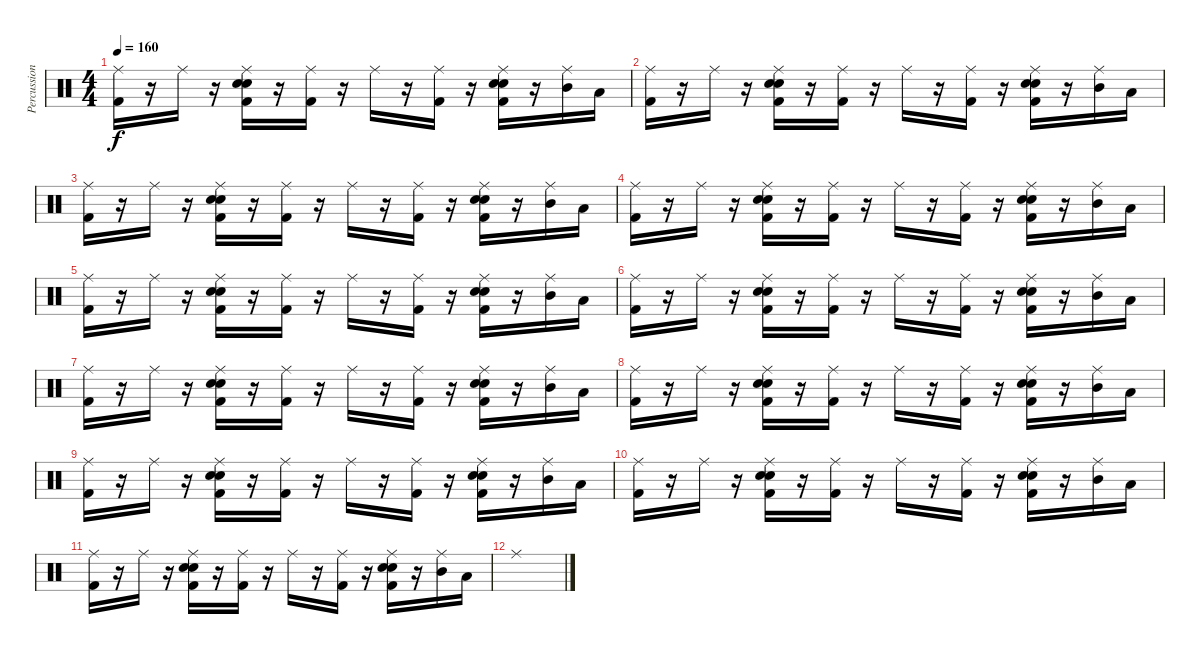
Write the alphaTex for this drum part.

\track ("Percussion" "Percussion") {instrument percussion}
\staff {score}
\articulation defaults
\ts (4 4)
\tempo 160
\clef neutral
\ks c
("Ride (middle)" "Kick (hit) 2").16{dy f} r.16 "Ride (middle)".16 r.16 ("Ride (middle)" "Kick (hit) 2" "Snare (hit) 2" "Electric Snare (hit)").16 r.16 ("Ride (middle)" "Kick (hit) 2").16 r.16 "Ride (middle)".16 r.16 ("Ride (middle)" "Kick (hit) 2").16 r.16 ("Ride (middle)" "Kick (hit) 2" "Snare (hit) 2" "Electric Snare (hit)").16 r.16 ("Ride (middle)" "Mid Tom (hit)").16 "Low Tom (hit)".16 |
("Ride (middle)" "Kick (hit) 2").16 r.16 "Ride (middle)".16 r.16 ("Ride (middle)" "Kick (hit) 2" "Snare (hit) 2" "Electric Snare (hit)").16 r.16 ("Ride (middle)" "Kick (hit) 2").16 r.16 "Ride (middle)".16 r.16 ("Ride (middle)" "Kick (hit) 2").16 r.16 ("Ride (middle)" "Kick (hit) 2" "Snare (hit) 2" "Electric Snare (hit)").16 r.16 ("Ride (middle)" "Mid Tom (hit)").16 "Low Tom (hit)".16 |
("Ride (middle)" "Kick (hit) 2").16 r.16 "Ride (middle)".16 r.16 ("Ride (middle)" "Kick (hit) 2" "Snare (hit) 2" "Electric Snare (hit)").16 r.16 ("Ride (middle)" "Kick (hit) 2").16 r.16 "Ride (middle)".16 r.16 ("Ride (middle)" "Kick (hit) 2").16 r.16 ("Ride (middle)" "Kick (hit) 2" "Snare (hit) 2" "Electric Snare (hit)").16 r.16 ("Ride (middle)" "Mid Tom (hit)").16 "Low Tom (hit)".16 |
("Ride (middle)" "Kick (hit) 2").16 r.16 "Ride (middle)".16 r.16 ("Ride (middle)" "Kick (hit) 2" "Snare (hit) 2" "Electric Snare (hit)").16 r.16 ("Ride (middle)" "Kick (hit) 2").16 r.16 "Ride (middle)".16 r.16 ("Ride (middle)" "Kick (hit) 2").16 r.16 ("Ride (middle)" "Kick (hit) 2" "Snare (hit) 2" "Electric Snare (hit)").16 r.16 ("Ride (middle)" "Mid Tom (hit)").16 "Low Tom (hit)".16 |
("Ride (middle)" "Kick (hit) 2").16 r.16 "Ride (middle)".16 r.16 ("Ride (middle)" "Kick (hit) 2" "Snare (hit) 2" "Electric Snare (hit)").16 r.16 ("Ride (middle)" "Kick (hit) 2").16 r.16 "Ride (middle)".16 r.16 ("Ride (middle)" "Kick (hit) 2").16 r.16 ("Ride (middle)" "Kick (hit) 2" "Snare (hit) 2" "Electric Snare (hit)").16 r.16 ("Ride (middle)" "Mid Tom (hit)").16 "Low Tom (hit)".16 |
("Ride (middle)" "Kick (hit) 2").16 r.16 "Ride (middle)".16 r.16 ("Ride (middle)" "Kick (hit) 2" "Snare (hit) 2" "Electric Snare (hit)").16 r.16 ("Ride (middle)" "Kick (hit) 2").16 r.16 "Ride (middle)".16 r.16 ("Ride (middle)" "Kick (hit) 2").16 r.16 ("Ride (middle)" "Kick (hit) 2" "Snare (hit) 2" "Electric Snare (hit)").16 r.16 ("Ride (middle)" "Mid Tom (hit)").16 "Low Tom (hit)".16 |
("Ride (middle)" "Kick (hit) 2").16 r.16 "Ride (middle)".16 r.16 ("Ride (middle)" "Kick (hit) 2" "Snare (hit) 2" "Electric Snare (hit)").16 r.16 ("Ride (middle)" "Kick (hit) 2").16 r.16 "Ride (middle)".16 r.16 ("Ride (middle)" "Kick (hit) 2").16 r.16 ("Ride (middle)" "Kick (hit) 2" "Snare (hit) 2" "Electric Snare (hit)").16 r.16 ("Ride (middle)" "Mid Tom (hit)").16 "Low Tom (hit)".16 |
("Ride (middle)" "Kick (hit) 2").16 r.16 "Ride (middle)".16 r.16 ("Ride (middle)" "Kick (hit) 2" "Snare (hit) 2" "Electric Snare (hit)").16 r.16 ("Ride (middle)" "Kick (hit) 2").16 r.16 "Ride (middle)".16 r.16 ("Ride (middle)" "Kick (hit) 2").16 r.16 ("Ride (middle)" "Kick (hit) 2" "Snare (hit) 2" "Electric Snare (hit)").16 r.16 ("Ride (middle)" "Mid Tom (hit)").16 "Low Tom (hit)".16 |
("Ride (middle)" "Kick (hit) 2").16 r.16 "Ride (middle)".16 r.16 ("Ride (middle)" "Kick (hit) 2" "Snare (hit) 2" "Electric Snare (hit)").16 r.16 ("Ride (middle)" "Kick (hit) 2").16 r.16 "Ride (middle)".16 r.16 ("Ride (middle)" "Kick (hit) 2").16 r.16 ("Ride (middle)" "Kick (hit) 2" "Snare (hit) 2" "Electric Snare (hit)").16 r.16 ("Ride (middle)" "Mid Tom (hit)").16 "Low Tom (hit)".16 |
("Ride (middle)" "Kick (hit) 2").16 r.16 "Ride (middle)".16 r.16 ("Ride (middle)" "Kick (hit) 2" "Snare (hit) 2" "Electric Snare (hit)").16 r.16 ("Ride (middle)" "Kick (hit) 2").16 r.16 "Ride (middle)".16 r.16 ("Ride (middle)" "Kick (hit) 2").16 r.16 ("Ride (middle)" "Kick (hit) 2" "Snare (hit) 2" "Electric Snare (hit)").16 r.16 ("Ride (middle)" "Mid Tom (hit)").16 "Low Tom (hit)".16 |
("Ride (middle)" "Kick (hit) 2").16 r.16 "Ride (middle)".16 r.16 ("Ride (middle)" "Kick (hit) 2" "Snare (hit) 2" "Electric Snare (hit)").16 r.16 ("Ride (middle)" "Kick (hit) 2").16 r.16 "Ride (middle)".16 r.16 ("Ride (middle)" "Kick (hit) 2").16 r.16 ("Ride (middle)" "Kick (hit) 2" "Snare (hit) 2" "Electric Snare (hit)").16 r.16 ("Ride (middle)" "Mid Tom (hit)").16 "Low Tom (hit)".16 |
"Ride (middle)".1
